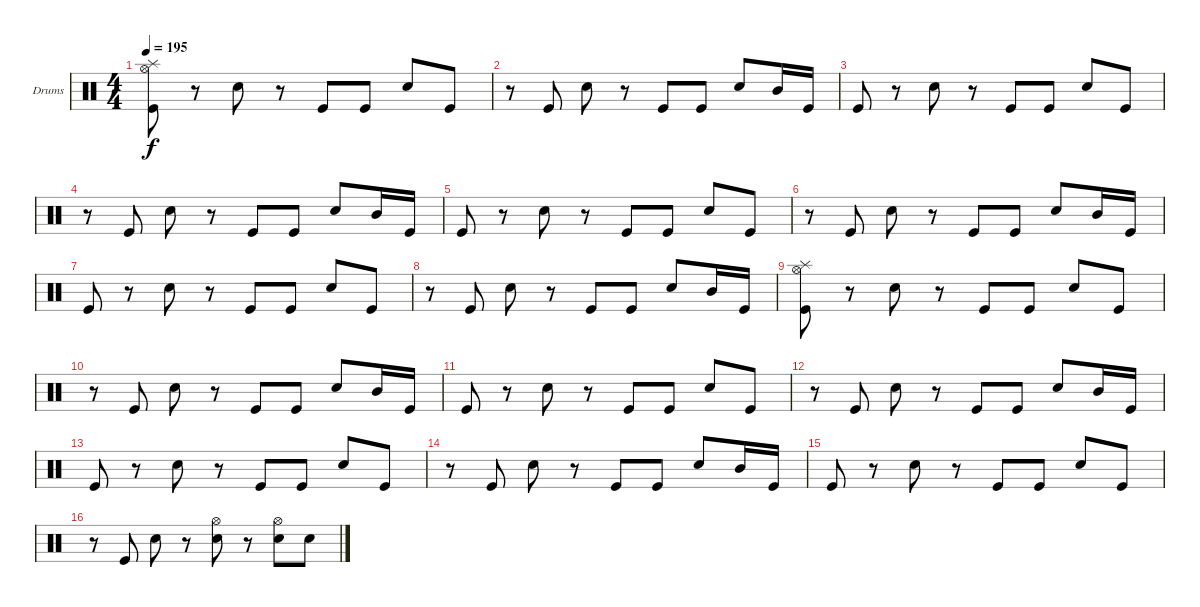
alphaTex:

\defaultSystemsLayout 4
\bracketExtendMode groupsimilarinstruments
\firstSystemTrackNameOrientation horizontal
\otherSystemsTrackNameOrientation horizontal
\track ("Drumkit" "Drums") {instrument percussion}
\staff {score}
\articulation defaults
\ts (4 4)
\tempo 195
\clef neutral
\ks c
("Kick (hit)" "Hi-Hat (open)" "Splash (hit)").8{dy f} r.8 "Snare (hit) 2".8 r.8 "Kick (hit)".8 "Kick (hit)".8 "Snare (hit) 2".8 "Kick (hit)".8 |
r.8 "Kick (hit)".8 "Snare (hit) 2".8 r.8 "Kick (hit)".8 "Kick (hit)".8 "Snare (hit) 2".8 "Mid Tom (hit)".16 "Kick (hit)".16 |
"Kick (hit)".8 r.8 "Snare (hit) 2".8 r.8 "Kick (hit)".8 "Kick (hit)".8 "Snare (hit) 2".8 "Kick (hit)".8 |
r.8 "Kick (hit)".8 "Snare (hit) 2".8 r.8 "Kick (hit)".8 "Kick (hit)".8 "Snare (hit) 2".8 "Mid Tom (hit)".16 "Kick (hit)".16 |
"Kick (hit)".8 r.8 "Snare (hit) 2".8 r.8 "Kick (hit)".8 "Kick (hit)".8 "Snare (hit) 2".8 "Kick (hit)".8 |
r.8 "Kick (hit)".8 "Snare (hit) 2".8 r.8 "Kick (hit)".8 "Kick (hit)".8 "Snare (hit) 2".8 "Mid Tom (hit)".16 "Kick (hit)".16 |
"Kick (hit)".8 r.8 "Snare (hit) 2".8 r.8 "Kick (hit)".8 "Kick (hit)".8 "Snare (hit) 2".8 "Kick (hit)".8 |
r.8 "Kick (hit)".8 "Snare (hit) 2".8 r.8 "Kick (hit)".8 "Kick (hit)".8 "Snare (hit) 2".8 "Mid Tom (hit)".16 "Kick (hit)".16 |
("Kick (hit)" "Hi-Hat (open)" "Splash (hit)").8 r.8 "Snare (hit) 2".8 r.8 "Kick (hit)".8 "Kick (hit)".8 "Snare (hit) 2".8 "Kick (hit)".8 |
r.8 "Kick (hit)".8 "Snare (hit) 2".8 r.8 "Kick (hit)".8 "Kick (hit)".8 "Snare (hit) 2".8 "Mid Tom (hit)".16 "Kick (hit)".16 |
"Kick (hit)".8 r.8 "Snare (hit) 2".8 r.8 "Kick (hit)".8 "Kick (hit)".8 "Snare (hit) 2".8 "Kick (hit)".8 |
r.8 "Kick (hit)".8 "Snare (hit) 2".8 r.8 "Kick (hit)".8 "Kick (hit)".8 "Snare (hit) 2".8 "Mid Tom (hit)".16 "Kick (hit)".16 |
"Kick (hit)".8 r.8 "Snare (hit) 2".8 r.8 "Kick (hit)".8 "Kick (hit)".8 "Snare (hit) 2".8 "Kick (hit)".8 |
r.8 "Kick (hit)".8 "Snare (hit) 2".8 r.8 "Kick (hit)".8 "Kick (hit)".8 "Snare (hit) 2".8 "Mid Tom (hit)".16 "Kick (hit)".16 |
"Kick (hit)".8 r.8 "Snare (hit) 2".8 r.8 "Kick (hit)".8 "Kick (hit)".8 "Snare (hit) 2".8 "Kick (hit)".8 |
r.8 "Kick (hit)".8 "Snare (hit) 2".8 r.8 ("Snare (hit) 2" "Hi-Hat (open)").8 r.8 ("Snare (hit) 2" "Hi-Hat (open)").8 "Snare (hit) 2".8
